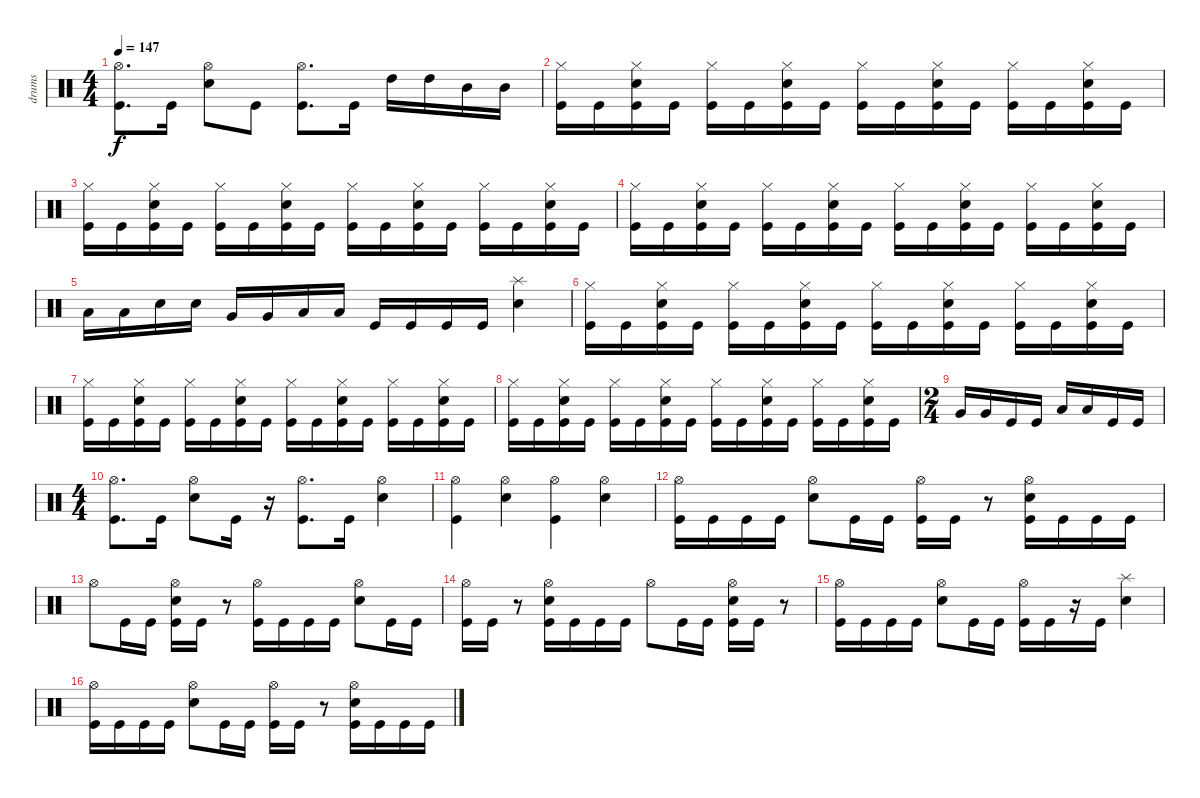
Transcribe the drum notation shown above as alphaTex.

\track ("drums" "drums") {instrument percussion}
\staff {score}
\articulation defaults
\ts (4 4)
\tempo 147
\clef neutral
\ks c
("Hi-Hat (open)" "Kick (hit)").8{d dy f} "Kick (hit)".16 ("Hi-Hat (open)" "Snare (hit) 2").8 "Kick (hit)".8 ("Hi-Hat (open)" "Kick (hit)").8{d} "Kick (hit)".16 "High Tom (hit)".16 "High Tom (hit)".16 "Mid Tom (hit)".16 "Mid Tom (hit)".16 |
("Hi-Hat (closed)" "Kick (hit)").16 "Kick (hit)".16 ("Snare (hit) 2" "Kick (hit)" "Hi-Hat (closed)").16 "Kick (hit)".16 ("Hi-Hat (closed)" "Kick (hit)").16 "Kick (hit)".16 ("Hi-Hat (closed)" "Snare (hit) 2" "Kick (hit)").16 "Kick (hit)".16 ("Hi-Hat (closed)" "Kick (hit)").16 "Kick (hit)".16 ("Kick (hit)" "Hi-Hat (closed)" "Snare (hit) 2").16 "Kick (hit)".16 ("Hi-Hat (closed)" "Kick (hit)").16 "Kick (hit)".16 ("Snare (hit) 2" "Kick (hit)" "Hi-Hat (closed)").16 "Kick (hit)".16 |
("Hi-Hat (closed)" "Kick (hit)").16 "Kick (hit)".16 ("Kick (hit)" "Snare (hit) 2" "Hi-Hat (closed)").16 "Kick (hit)".16 ("Kick (hit)" "Hi-Hat (closed)").16 "Kick (hit)".16 ("Kick (hit)" "Hi-Hat (closed)" "Snare (hit) 2").16 "Kick (hit)".16 ("Hi-Hat (closed)" "Kick (hit)").16 "Kick (hit)".16 ("Hi-Hat (closed)" "Kick (hit)" "Snare (hit) 2").16 "Kick (hit)".16 ("Kick (hit)" "Hi-Hat (closed)").16 "Kick (hit)".16 ("Snare (hit) 2" "Kick (hit)" "Hi-Hat (closed)").16 "Kick (hit)".16 |
("Kick (hit)" "Hi-Hat (closed)").16 "Kick (hit)".16 ("Kick (hit)" "Hi-Hat (closed)" "Snare (hit) 2").16 "Kick (hit)".16 ("Kick (hit)" "Hi-Hat (closed)").16 "Kick (hit)".16 ("Hi-Hat (closed)" "Kick (hit)" "Snare (hit) 2").16 "Kick (hit)".16 ("Hi-Hat (closed)" "Kick (hit)").16 "Kick (hit)".16 ("Hi-Hat (closed)" "Snare (hit) 2" "Kick (hit)").16 "Kick (hit)".16 ("Hi-Hat (closed)" "Kick (hit)").16 "Kick (hit)".16 ("Kick (hit)" "Snare (hit) 2" "Hi-Hat (closed)").16 "Kick (hit)".16 |
"Low Floor Tom (hit)".16 "Low Floor Tom (hit)".16 "Snare (hit) 2".16 "Snare (hit) 2".16 "Very Low Tom (hit)".16 "Very Low Tom (hit)".16 "Low Floor Tom (hit)".16 "Low Floor Tom (hit)".16 "Kick (hit)".16 "Kick (hit)".16 "Kick (hit)".16 "Kick (hit)".16 ("Snare (hit) 2" "Splash (hit)").4 |
("Kick (hit)" "Hi-Hat (closed)").16 "Kick (hit)".16 ("Hi-Hat (closed)" "Snare (hit) 2" "Kick (hit)").16 "Kick (hit)".16 ("Kick (hit)" "Hi-Hat (closed)").16 "Kick (hit)".16 ("Hi-Hat (closed)" "Snare (hit) 2" "Kick (hit)").16 "Kick (hit)".16 ("Kick (hit)" "Hi-Hat (closed)").16 "Kick (hit)".16 ("Kick (hit)" "Hi-Hat (closed)" "Snare (hit) 2").16 "Kick (hit)".16 ("Kick (hit)" "Hi-Hat (closed)").16 "Kick (hit)".16 ("Snare (hit) 2" "Kick (hit)" "Hi-Hat (closed)").16 "Kick (hit)".16 |
("Kick (hit)" "Hi-Hat (closed)").16 "Kick (hit)".16 ("Hi-Hat (closed)" "Snare (hit) 2" "Kick (hit)").16 "Kick (hit)".16 ("Kick (hit)" "Hi-Hat (closed)").16 "Kick (hit)".16 ("Kick (hit)" "Snare (hit) 2" "Hi-Hat (closed)").16 "Kick (hit)".16 ("Hi-Hat (closed)" "Kick (hit)").16 "Kick (hit)".16 ("Kick (hit)" "Snare (hit) 2" "Hi-Hat (closed)").16 "Kick (hit)".16 ("Hi-Hat (closed)" "Kick (hit)").16 "Kick (hit)".16 ("Hi-Hat (closed)" "Snare (hit) 2" "Kick (hit)").16 "Kick (hit)".16 |
("Kick (hit)" "Hi-Hat (closed)").16 "Kick (hit)".16 ("Snare (hit) 2" "Kick (hit)" "Hi-Hat (closed)").16 "Kick (hit)".16 ("Hi-Hat (closed)" "Kick (hit)").16 "Kick (hit)".16 ("Hi-Hat (closed)" "Snare (hit) 2" "Kick (hit)").16 "Kick (hit)".16 ("Kick (hit)" "Hi-Hat (closed)").16 "Kick (hit)".16 ("Hi-Hat (closed)" "Kick (hit)" "Snare (hit) 2").16 "Kick (hit)".16 ("Hi-Hat (closed)" "Kick (hit)").16 "Kick (hit)".16 ("Snare (hit) 2" "Hi-Hat (closed)" "Kick (hit)").16 "Kick (hit)".16 |
\ts (2 4)
"Very Low Tom (hit)".16 "Very Low Tom (hit)".16 "Kick (hit)".16 "Kick (hit)".16 "Low Floor Tom (hit)".16 "Low Floor Tom (hit)".16 "Kick (hit)".16 "Kick (hit)".16 |
\ts (4 4)
("Kick (hit)" "Hi-Hat (open)").8{d} "Kick (hit)".16 ("Hi-Hat (open)" "Snare (hit) 2").8 "Kick (hit)".16 r.16 ("Hi-Hat (open)" "Kick (hit)").8{d} "Kick (hit)".16 ("Hi-Hat (open)" "Snare (hit) 2").4 |
("Hi-Hat (open)" "Kick (hit)").4 ("Snare (hit) 2" "Hi-Hat (open)").4 ("Hi-Hat (open)" "Kick (hit)").4 ("Snare (hit) 2" "Hi-Hat (open)").4 |
("Hi-Hat (open)" "Kick (hit)").16 "Kick (hit)".16 "Kick (hit)".16 "Kick (hit)".16 ("Snare (hit) 2" "Hi-Hat (open)").8 "Kick (hit)".16 "Kick (hit)".16 ("Hi-Hat (open)" "Kick (hit)").16 "Kick (hit)".16 r.8 ("Hi-Hat (open)" "Kick (hit)" "Snare (hit) 2").16 "Kick (hit)".16 "Kick (hit)".16 "Kick (hit)".16 |
"Hi-Hat (open)".8 "Kick (hit)".16 "Kick (hit)".16 ("Hi-Hat (open)" "Snare (hit) 2" "Kick (hit)").16 "Kick (hit)".16 r.8 ("Hi-Hat (open)" "Kick (hit)").16 "Kick (hit)".16 "Kick (hit)".16 "Kick (hit)".16 ("Snare (hit) 2" "Hi-Hat (open)").8 "Kick (hit)".16 "Kick (hit)".16 |
("Hi-Hat (open)" "Kick (hit)").16 "Kick (hit)".16 r.8 ("Kick (hit)" "Hi-Hat (open)" "Snare (hit) 2").16 "Kick (hit)".16 "Kick (hit)".16 "Kick (hit)".16 "Hi-Hat (open)".8 "Kick (hit)".16 "Kick (hit)".16 ("Kick (hit)" "Snare (hit) 2" "Hi-Hat (open)").16 "Kick (hit)".16 r.8 |
("Kick (hit)" "Hi-Hat (open)").16 "Kick (hit)".16 "Kick (hit)".16 "Kick (hit)".16 ("Hi-Hat (open)" "Snare (hit) 2").8 "Kick (hit)".16 "Kick (hit)".16 ("Hi-Hat (open)" "Kick (hit)").16 "Kick (hit)".16 r.16 "Kick (hit)".16 ("Splash (hit)" "Snare (hit) 2").4 |
("Kick (hit)" "Hi-Hat (open)").16 "Kick (hit)".16 "Kick (hit)".16 "Kick (hit)".16 ("Hi-Hat (open)" "Snare (hit) 2").8 "Kick (hit)".16 "Kick (hit)".16 ("Kick (hit)" "Hi-Hat (open)").16 "Kick (hit)".16 r.8 ("Snare (hit) 2" "Kick (hit)" "Hi-Hat (open)").16 "Kick (hit)".16 "Kick (hit)".16 "Kick (hit)".16
